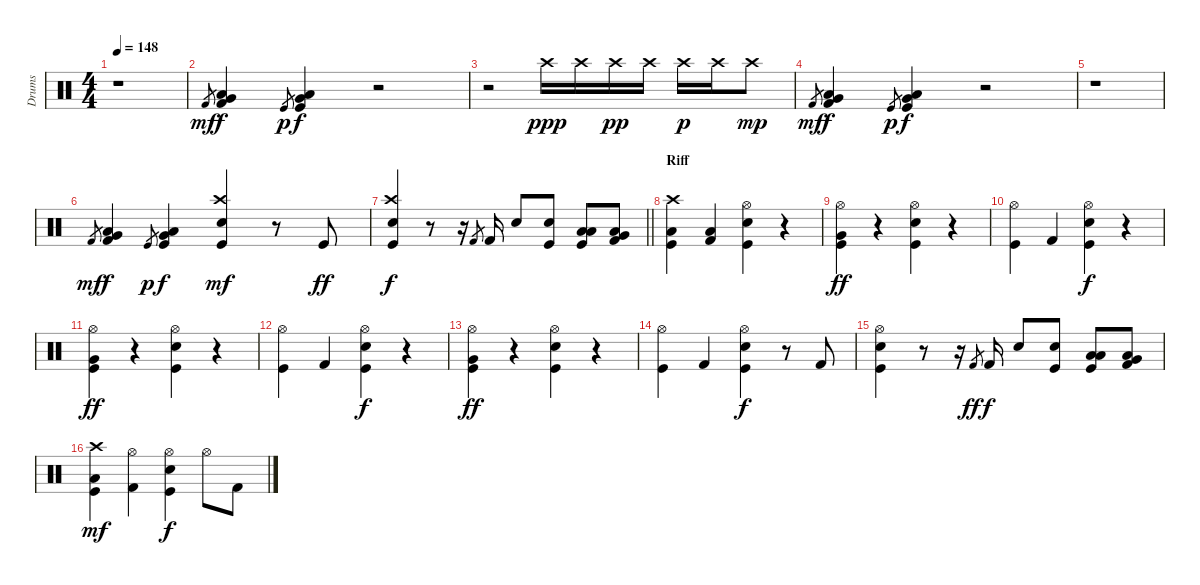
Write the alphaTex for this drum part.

\track ("Drums" "Drums") {instrument percussion}
\staff {score}
\articulation defaults
\ts (4 4)
\tempo 148
\clef neutral
\ks c
r.1{dy f} |
"Kick (hit) 2".8{gr dy mf} ("Kick (hit) 2" "Very Low Tom (hit)" "Low Floor Tom (hit)").4{dy f} "Kick (hit)".8{gr dy p} ("Kick (hit)" "Very Low Tom (hit)" "Low Floor Tom (hit)").4{dy f} r.2 |
r.2 "Crash high (hit)".16{dy ppp} "Crash high (hit)".16 "Crash high (hit)".16{dy pp} "Crash high (hit)".16 "Crash high (hit)".16{dy p} "Crash high (hit)".16 "Crash high (hit)".8{dy mp} |
"Kick (hit) 2".8{gr dy mf} ("Kick (hit) 2" "Very Low Tom (hit)" "Low Floor Tom (hit)").4{dy f} "Kick (hit)".8{gr dy p} ("Kick (hit)" "Very Low Tom (hit)" "Low Floor Tom (hit)").4{dy f} r.2 |
r.1 |
"Kick (hit) 2".8{gr dy mf} ("Kick (hit) 2" "Very Low Tom (hit)" "Low Floor Tom (hit)").4{dy f} "Kick (hit)".8{gr dy p} ("Kick (hit)" "Very Low Tom (hit)" "Low Floor Tom (hit)").4{dy f} ("Kick (hit)" "Snare (hit) 2" "Crash high (hit)").4{dy mf} r.8 "Kick (hit)".8{dy ff} |
\barLineRight lightlight
("Kick (hit)" "Snare (hit) 2" "Crash high (hit)").4{dy f} r.8 r.16 "Kick (hit) 2".8{gr} "Kick (hit) 2".16 "Electric Snare (hit)".8 ("Kick (hit)" "Snare (hit) 2").8 ("Kick (hit)" "Low Floor Tom (hit)" "Low Tom (hit)").8 ("Kick (hit) 2" "Low Floor Tom (hit)" "Very Low Tom (hit)").8 |
\section ("" "Riff")
("Kick (hit)" "Crash high (hit)" "Low Floor Tom (hit)").4 ("Kick (hit) 2" "Low Floor Tom (hit)").4 ("Kick (hit)" "Snare (hit) 2" "Hi-Hat (open)").4 r.4 |
("Kick (hit)" "Hi-Hat (open)" "Very Low Tom (hit)").4{dy ff} r.4 ("Kick (hit)" "Snare (hit) 2" "Hi-Hat (open)").4 r.4 |
("Kick (hit)" "Hi-Hat (open)").4 "Kick (hit) 2".4 ("Kick (hit)" "Snare (hit) 2" "Hi-Hat (open)").4{dy f} r.4 |
("Kick (hit)" "Hi-Hat (open)" "Very Low Tom (hit)").4{dy ff} r.4 ("Kick (hit)" "Snare (hit) 2" "Hi-Hat (open)").4 r.4 |
("Kick (hit)" "Hi-Hat (open)").4 "Kick (hit) 2".4 ("Kick (hit)" "Snare (hit) 2" "Hi-Hat (open)").4{dy f} r.4 |
("Kick (hit)" "Hi-Hat (open)" "Very Low Tom (hit)").4{dy ff} r.4 ("Kick (hit)" "Snare (hit) 2" "Hi-Hat (open)").4 r.4 |
("Kick (hit)" "Hi-Hat (open)").4 "Kick (hit) 2".4 ("Kick (hit)" "Snare (hit) 2" "Hi-Hat (open)").4{dy f} r.8 "Kick (hit) 2".8 |
("Kick (hit)" "Snare (hit) 2" "Hi-Hat (open)").4 r.8 r.16 "Kick (hit) 2".8{gr dy ff} "Kick (hit) 2".16{dy f} "Electric Snare (hit)".8 ("Kick (hit)" "Snare (hit) 2").8 ("Kick (hit)" "Low Floor Tom (hit)" "Low Tom (hit)").8 ("Kick (hit) 2" "Low Floor Tom (hit)" "Very Low Tom (hit)").8 |
("Kick (hit)" "Crash high (hit)" "Low Floor Tom (hit)").4{dy mf} ("Kick (hit) 2" "Hi-Hat (open)").4 ("Kick (hit)" "Snare (hit) 2" "Hi-Hat (open)").4{dy f} "Hi-Hat (open)".8 "Kick (hit) 2".8
